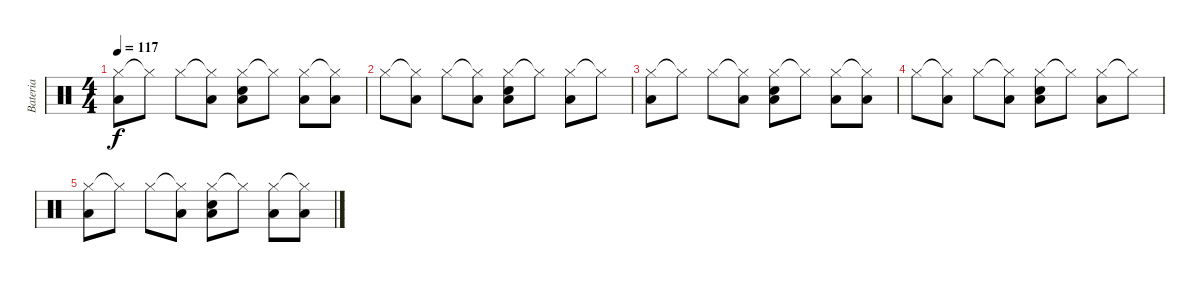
\track ("Bateria" "Bateria") {instrument percussion}
\staff {score}
\articulation defaults
\ts (4 4)
\tempo 117
\clef neutral
\ks c
("Hi-Hat (closed)" "Low Tom (hit)").8{dy f} "Hi-Hat (closed)"{t}.8 "Hi-Hat (closed)".8 ("Hi-Hat (closed)"{t} "Low Tom (hit)").8 ("Hi-Hat (closed)" "Snare (hit) 2" "Low Tom (hit)").8 "Hi-Hat (closed)"{t}.8 ("Hi-Hat (closed)" "Low Tom (hit)").8 ("Hi-Hat (closed)"{t} "Low Tom (hit)").8 |
"Hi-Hat (closed)".8 ("Hi-Hat (closed)"{t} "Low Tom (hit)").8 "Hi-Hat (closed)".8 ("Hi-Hat (closed)"{t} "Low Tom (hit)").8 ("Hi-Hat (closed)" "Snare (hit) 2" "Low Tom (hit)").8 "Hi-Hat (closed)"{t}.8 ("Hi-Hat (closed)" "Low Tom (hit)").8 "Hi-Hat (closed)"{t}.8 |
("Hi-Hat (closed)" "Low Tom (hit)").8 "Hi-Hat (closed)"{t}.8 "Hi-Hat (closed)".8 ("Hi-Hat (closed)"{t} "Low Tom (hit)").8 ("Hi-Hat (closed)" "Snare (hit) 2" "Low Tom (hit)").8 "Hi-Hat (closed)"{t}.8 ("Hi-Hat (closed)" "Low Tom (hit)").8 ("Hi-Hat (closed)"{t} "Low Tom (hit)").8 |
"Hi-Hat (closed)".8 ("Hi-Hat (closed)"{t} "Low Tom (hit)").8 "Hi-Hat (closed)".8 ("Hi-Hat (closed)"{t} "Low Tom (hit)").8 ("Hi-Hat (closed)" "Snare (hit) 2" "Low Tom (hit)").8 "Hi-Hat (closed)"{t}.8 ("Hi-Hat (closed)" "Low Tom (hit)").8 "Hi-Hat (closed)"{t}.8 |
("Hi-Hat (closed)" "Low Tom (hit)").8 "Hi-Hat (closed)"{t}.8 "Hi-Hat (closed)".8 ("Hi-Hat (closed)"{t} "Low Tom (hit)").8 ("Hi-Hat (closed)" "Snare (hit) 2" "Low Tom (hit)").8 "Hi-Hat (closed)"{t}.8 ("Hi-Hat (closed)" "Low Tom (hit)").8 ("Hi-Hat (closed)"{t} "Low Tom (hit)").8
